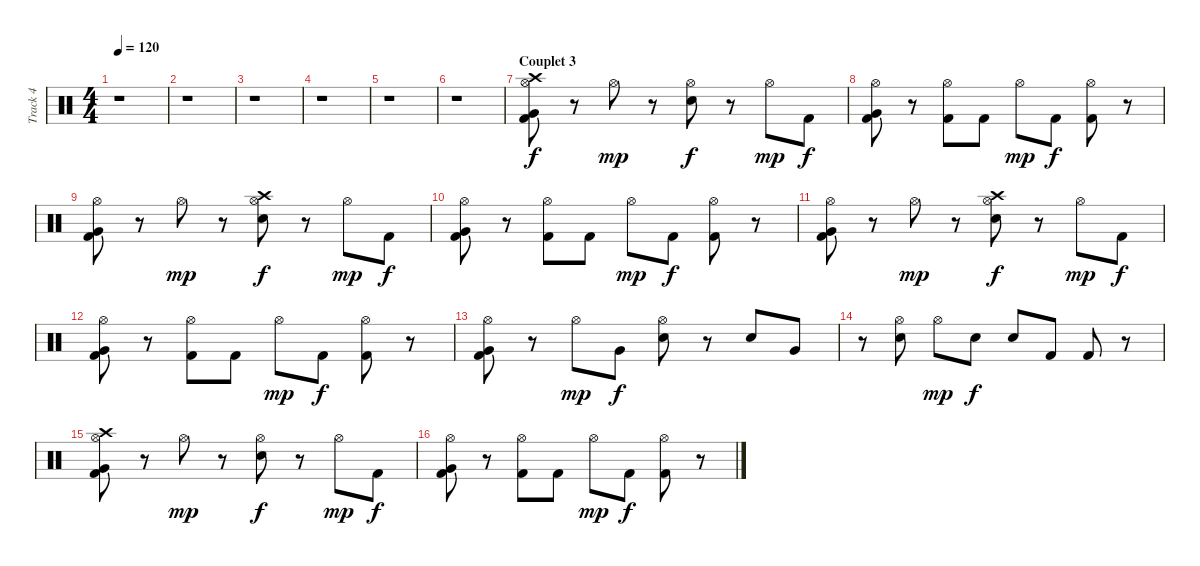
\track ("Track 4" "Track 4") {instrument percussion}
\staff {score}
\articulation defaults
\ts (4 4)
\tempo 120
\clef neutral
\ks c
r.1{dy f} |
r.1 |
r.1 |
r.1 |
r.1 |
r.1 |
\section ("" "Couplet 3")
("Hi-Hat (open)" "Kick (hit) 2" "Very Low Tom (hit)" "Crash high (hit)").8 r.8 "Hi-Hat (open)".8{dy mp} r.8 ("Hi-Hat (open)" "Snare (hit) 2").8{dy f} r.8 "Hi-Hat (open)".8{dy mp} "Kick (hit) 2".8{dy f} |
("Hi-Hat (open)" "Kick (hit) 2" "Very Low Tom (hit)").8 r.8 ("Hi-Hat (open)" "Kick (hit) 2").8 "Kick (hit) 2".8 "Hi-Hat (open)".8{dy mp} "Kick (hit) 2".8{dy f} ("Hi-Hat (open)" "Kick (hit) 2").8 r.8 |
("Hi-Hat (open)" "Kick (hit) 2" "Very Low Tom (hit)").8 r.8 "Hi-Hat (open)".8{dy mp} r.8 ("Hi-Hat (open)" "Snare (hit) 2" "Crash high (hit)").8{dy f} r.8 "Hi-Hat (open)".8{dy mp} "Kick (hit) 2".8{dy f} |
("Hi-Hat (open)" "Kick (hit) 2" "Very Low Tom (hit)").8 r.8 ("Hi-Hat (open)" "Kick (hit) 2").8 "Kick (hit) 2".8 "Hi-Hat (open)".8{dy mp} "Kick (hit) 2".8{dy f} ("Hi-Hat (open)" "Kick (hit) 2").8 r.8 |
("Hi-Hat (open)" "Kick (hit) 2" "Very Low Tom (hit)").8 r.8 "Hi-Hat (open)".8{dy mp} r.8 ("Hi-Hat (open)" "Snare (hit) 2" "Crash high (hit)").8{dy f} r.8 "Hi-Hat (open)".8{dy mp} "Kick (hit) 2".8{dy f} |
("Hi-Hat (open)" "Kick (hit) 2" "Very Low Tom (hit)").8 r.8 ("Hi-Hat (open)" "Kick (hit) 2").8 "Kick (hit) 2".8 "Hi-Hat (open)".8{dy mp} "Kick (hit) 2".8{dy f} ("Hi-Hat (open)" "Kick (hit) 2").8 r.8 |
("Hi-Hat (open)" "Kick (hit) 2" "Very Low Tom (hit)").8 r.8 "Hi-Hat (open)".8{dy mp} "Very Low Tom (hit)".8{dy f} ("Hi-Hat (open)" "Snare (hit) 2").8 r.8 "Electric Snare (hit)".8 "Very Low Tom (hit)".8 |
r.8 ("Hi-Hat (open)" "Electric Snare (hit)").8 "Hi-Hat (open)".8{dy mp} "Electric Snare (hit)".8{dy f} "Electric Snare (hit)".8 "Kick (hit) 2".8 "Kick (hit) 2".8 r.8 |
("Hi-Hat (open)" "Kick (hit) 2" "Very Low Tom (hit)" "Crash high (hit)").8 r.8 "Hi-Hat (open)".8{dy mp} r.8 ("Hi-Hat (open)" "Snare (hit) 2").8{dy f} r.8 "Hi-Hat (open)".8{dy mp} "Kick (hit) 2".8{dy f} |
("Hi-Hat (open)" "Kick (hit) 2" "Very Low Tom (hit)").8 r.8 ("Hi-Hat (open)" "Kick (hit) 2").8 "Kick (hit) 2".8 "Hi-Hat (open)".8{dy mp} "Kick (hit) 2".8{dy f} ("Hi-Hat (open)" "Kick (hit) 2").8 r.8
